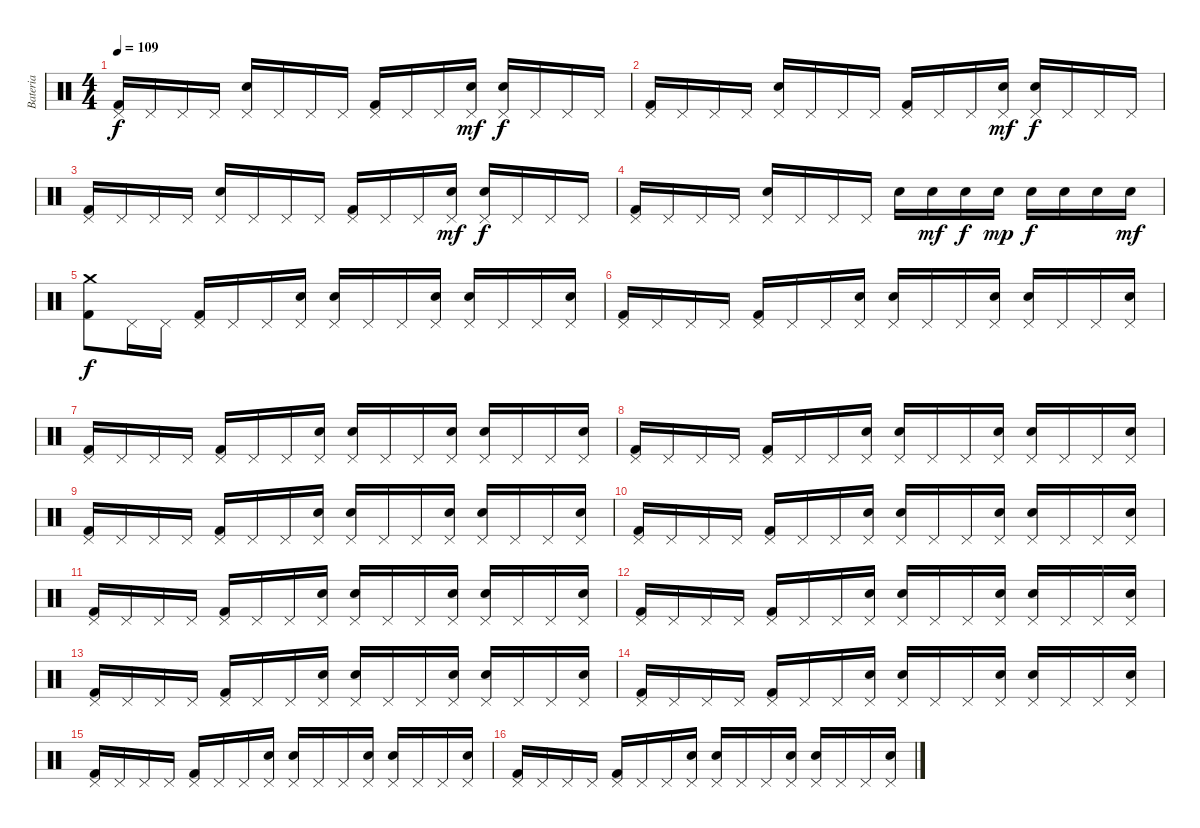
\track ("Bateria" "Bateria") {instrument percussion}
\staff {score}
\articulation defaults
\ts (4 4)
\tempo 109
\clef neutral
\ks c
("Pedal Hi-Hat (hit)" "Kick (hit) 2").16{dy f} "Pedal Hi-Hat (hit)".16 "Pedal Hi-Hat (hit)".16 "Pedal Hi-Hat (hit)".16 ("Pedal Hi-Hat (hit)" "Electric Snare (hit)").16 "Pedal Hi-Hat (hit)".16 "Pedal Hi-Hat (hit)".16 "Pedal Hi-Hat (hit)".16 ("Pedal Hi-Hat (hit)" "Kick (hit) 2").16 "Pedal Hi-Hat (hit)".16 "Pedal Hi-Hat (hit)".16 ("Pedal Hi-Hat (hit)" "Electric Snare (hit)").16{dy mf} ("Pedal Hi-Hat (hit)" "Electric Snare (hit)").16{dy f} "Pedal Hi-Hat (hit)".16 "Pedal Hi-Hat (hit)".16 "Pedal Hi-Hat (hit)".16 |
("Pedal Hi-Hat (hit)" "Kick (hit) 2").16 "Pedal Hi-Hat (hit)".16 "Pedal Hi-Hat (hit)".16 "Pedal Hi-Hat (hit)".16 ("Pedal Hi-Hat (hit)" "Electric Snare (hit)").16 "Pedal Hi-Hat (hit)".16 "Pedal Hi-Hat (hit)".16 "Pedal Hi-Hat (hit)".16 ("Pedal Hi-Hat (hit)" "Kick (hit) 2").16 "Pedal Hi-Hat (hit)".16 "Pedal Hi-Hat (hit)".16 ("Pedal Hi-Hat (hit)" "Electric Snare (hit)").16{dy mf} ("Pedal Hi-Hat (hit)" "Electric Snare (hit)").16{dy f} "Pedal Hi-Hat (hit)".16 "Pedal Hi-Hat (hit)".16 "Pedal Hi-Hat (hit)".16 |
("Pedal Hi-Hat (hit)" "Kick (hit) 2").16 "Pedal Hi-Hat (hit)".16 "Pedal Hi-Hat (hit)".16 "Pedal Hi-Hat (hit)".16 ("Pedal Hi-Hat (hit)" "Electric Snare (hit)").16 "Pedal Hi-Hat (hit)".16 "Pedal Hi-Hat (hit)".16 "Pedal Hi-Hat (hit)".16 ("Pedal Hi-Hat (hit)" "Kick (hit) 2").16 "Pedal Hi-Hat (hit)".16 "Pedal Hi-Hat (hit)".16 ("Pedal Hi-Hat (hit)" "Electric Snare (hit)").16{dy mf} ("Pedal Hi-Hat (hit)" "Electric Snare (hit)").16{dy f} "Pedal Hi-Hat (hit)".16 "Pedal Hi-Hat (hit)".16 "Pedal Hi-Hat (hit)".16 |
("Pedal Hi-Hat (hit)" "Kick (hit) 2").16 "Pedal Hi-Hat (hit)".16 "Pedal Hi-Hat (hit)".16 "Pedal Hi-Hat (hit)".16 ("Pedal Hi-Hat (hit)" "Electric Snare (hit)").16 "Pedal Hi-Hat (hit)".16 "Pedal Hi-Hat (hit)".16 "Pedal Hi-Hat (hit)".16 "Electric Snare (hit)".16 "Electric Snare (hit)".16{dy mf} "Electric Snare (hit)".16{dy f} "Electric Snare (hit)".16{dy mp} "Electric Snare (hit)".16{dy f} "Electric Snare (hit)".16 "Electric Snare (hit)".16 "Electric Snare (hit)".16{dy mf} |
("Crash medium (hit)" "Kick (hit) 2").8{dy f} "Pedal Hi-Hat (hit)".16 "Pedal Hi-Hat (hit)".16 ("Pedal Hi-Hat (hit)" "Kick (hit) 2").16 "Pedal Hi-Hat (hit)".16 "Pedal Hi-Hat (hit)".16 ("Pedal Hi-Hat (hit)" "Electric Snare (hit)").16 ("Pedal Hi-Hat (hit)" "Electric Snare (hit)").16 "Pedal Hi-Hat (hit)".16 "Pedal Hi-Hat (hit)".16 ("Pedal Hi-Hat (hit)" "Electric Snare (hit)").16 ("Pedal Hi-Hat (hit)" "Electric Snare (hit)").16 "Pedal Hi-Hat (hit)".16 "Pedal Hi-Hat (hit)".16 ("Pedal Hi-Hat (hit)" "Electric Snare (hit)").16 |
("Pedal Hi-Hat (hit)" "Kick (hit) 2").16 "Pedal Hi-Hat (hit)".16 "Pedal Hi-Hat (hit)".16 "Pedal Hi-Hat (hit)".16 ("Pedal Hi-Hat (hit)" "Kick (hit) 2").16 "Pedal Hi-Hat (hit)".16 "Pedal Hi-Hat (hit)".16 ("Pedal Hi-Hat (hit)" "Electric Snare (hit)").16 ("Pedal Hi-Hat (hit)" "Electric Snare (hit)").16 "Pedal Hi-Hat (hit)".16 "Pedal Hi-Hat (hit)".16 ("Pedal Hi-Hat (hit)" "Electric Snare (hit)").16 ("Pedal Hi-Hat (hit)" "Electric Snare (hit)").16 "Pedal Hi-Hat (hit)".16 "Pedal Hi-Hat (hit)".16 ("Pedal Hi-Hat (hit)" "Electric Snare (hit)").16 |
("Pedal Hi-Hat (hit)" "Kick (hit) 2").16 "Pedal Hi-Hat (hit)".16 "Pedal Hi-Hat (hit)".16 "Pedal Hi-Hat (hit)".16 ("Pedal Hi-Hat (hit)" "Kick (hit) 2").16 "Pedal Hi-Hat (hit)".16 "Pedal Hi-Hat (hit)".16 ("Pedal Hi-Hat (hit)" "Electric Snare (hit)").16 ("Pedal Hi-Hat (hit)" "Electric Snare (hit)").16 "Pedal Hi-Hat (hit)".16 "Pedal Hi-Hat (hit)".16 ("Pedal Hi-Hat (hit)" "Electric Snare (hit)").16 ("Pedal Hi-Hat (hit)" "Electric Snare (hit)").16 "Pedal Hi-Hat (hit)".16 "Pedal Hi-Hat (hit)".16 ("Pedal Hi-Hat (hit)" "Electric Snare (hit)").16 |
("Pedal Hi-Hat (hit)" "Kick (hit) 2").16 "Pedal Hi-Hat (hit)".16 "Pedal Hi-Hat (hit)".16 "Pedal Hi-Hat (hit)".16 ("Pedal Hi-Hat (hit)" "Kick (hit) 2").16 "Pedal Hi-Hat (hit)".16 "Pedal Hi-Hat (hit)".16 ("Pedal Hi-Hat (hit)" "Electric Snare (hit)").16 ("Pedal Hi-Hat (hit)" "Electric Snare (hit)").16 "Pedal Hi-Hat (hit)".16 "Pedal Hi-Hat (hit)".16 ("Pedal Hi-Hat (hit)" "Electric Snare (hit)").16 ("Pedal Hi-Hat (hit)" "Electric Snare (hit)").16 "Pedal Hi-Hat (hit)".16 "Pedal Hi-Hat (hit)".16 ("Pedal Hi-Hat (hit)" "Electric Snare (hit)").16 |
("Pedal Hi-Hat (hit)" "Kick (hit) 2").16 "Pedal Hi-Hat (hit)".16 "Pedal Hi-Hat (hit)".16 "Pedal Hi-Hat (hit)".16 ("Pedal Hi-Hat (hit)" "Kick (hit) 2").16 "Pedal Hi-Hat (hit)".16 "Pedal Hi-Hat (hit)".16 ("Pedal Hi-Hat (hit)" "Electric Snare (hit)").16 ("Pedal Hi-Hat (hit)" "Electric Snare (hit)").16 "Pedal Hi-Hat (hit)".16 "Pedal Hi-Hat (hit)".16 ("Pedal Hi-Hat (hit)" "Electric Snare (hit)").16 ("Pedal Hi-Hat (hit)" "Electric Snare (hit)").16 "Pedal Hi-Hat (hit)".16 "Pedal Hi-Hat (hit)".16 ("Pedal Hi-Hat (hit)" "Electric Snare (hit)").16 |
("Pedal Hi-Hat (hit)" "Kick (hit) 2").16 "Pedal Hi-Hat (hit)".16 "Pedal Hi-Hat (hit)".16 "Pedal Hi-Hat (hit)".16 ("Pedal Hi-Hat (hit)" "Kick (hit) 2").16 "Pedal Hi-Hat (hit)".16 "Pedal Hi-Hat (hit)".16 ("Pedal Hi-Hat (hit)" "Electric Snare (hit)").16 ("Pedal Hi-Hat (hit)" "Electric Snare (hit)").16 "Pedal Hi-Hat (hit)".16 "Pedal Hi-Hat (hit)".16 ("Pedal Hi-Hat (hit)" "Electric Snare (hit)").16 ("Pedal Hi-Hat (hit)" "Electric Snare (hit)").16 "Pedal Hi-Hat (hit)".16 "Pedal Hi-Hat (hit)".16 ("Pedal Hi-Hat (hit)" "Electric Snare (hit)").16 |
("Pedal Hi-Hat (hit)" "Kick (hit) 2").16 "Pedal Hi-Hat (hit)".16 "Pedal Hi-Hat (hit)".16 "Pedal Hi-Hat (hit)".16 ("Pedal Hi-Hat (hit)" "Kick (hit) 2").16 "Pedal Hi-Hat (hit)".16 "Pedal Hi-Hat (hit)".16 ("Pedal Hi-Hat (hit)" "Electric Snare (hit)").16 ("Pedal Hi-Hat (hit)" "Electric Snare (hit)").16 "Pedal Hi-Hat (hit)".16 "Pedal Hi-Hat (hit)".16 ("Pedal Hi-Hat (hit)" "Electric Snare (hit)").16 ("Pedal Hi-Hat (hit)" "Electric Snare (hit)").16 "Pedal Hi-Hat (hit)".16 "Pedal Hi-Hat (hit)".16 ("Pedal Hi-Hat (hit)" "Electric Snare (hit)").16 |
("Pedal Hi-Hat (hit)" "Kick (hit) 2").16 "Pedal Hi-Hat (hit)".16 "Pedal Hi-Hat (hit)".16 "Pedal Hi-Hat (hit)".16 ("Pedal Hi-Hat (hit)" "Kick (hit) 2").16 "Pedal Hi-Hat (hit)".16 "Pedal Hi-Hat (hit)".16 ("Pedal Hi-Hat (hit)" "Electric Snare (hit)").16 ("Pedal Hi-Hat (hit)" "Electric Snare (hit)").16 "Pedal Hi-Hat (hit)".16 "Pedal Hi-Hat (hit)".16 ("Pedal Hi-Hat (hit)" "Electric Snare (hit)").16 ("Pedal Hi-Hat (hit)" "Electric Snare (hit)").16 "Pedal Hi-Hat (hit)".16 "Pedal Hi-Hat (hit)".16 ("Pedal Hi-Hat (hit)" "Electric Snare (hit)").16 |
("Pedal Hi-Hat (hit)" "Kick (hit) 2").16 "Pedal Hi-Hat (hit)".16 "Pedal Hi-Hat (hit)".16 "Pedal Hi-Hat (hit)".16 ("Pedal Hi-Hat (hit)" "Kick (hit) 2").16 "Pedal Hi-Hat (hit)".16 "Pedal Hi-Hat (hit)".16 ("Pedal Hi-Hat (hit)" "Electric Snare (hit)").16 ("Pedal Hi-Hat (hit)" "Electric Snare (hit)").16 "Pedal Hi-Hat (hit)".16 "Pedal Hi-Hat (hit)".16 ("Pedal Hi-Hat (hit)" "Electric Snare (hit)").16 ("Pedal Hi-Hat (hit)" "Electric Snare (hit)").16 "Pedal Hi-Hat (hit)".16 "Pedal Hi-Hat (hit)".16 ("Pedal Hi-Hat (hit)" "Electric Snare (hit)").16 |
("Pedal Hi-Hat (hit)" "Kick (hit) 2").16 "Pedal Hi-Hat (hit)".16 "Pedal Hi-Hat (hit)".16 "Pedal Hi-Hat (hit)".16 ("Pedal Hi-Hat (hit)" "Kick (hit) 2").16 "Pedal Hi-Hat (hit)".16 "Pedal Hi-Hat (hit)".16 ("Pedal Hi-Hat (hit)" "Electric Snare (hit)").16 ("Pedal Hi-Hat (hit)" "Electric Snare (hit)").16 "Pedal Hi-Hat (hit)".16 "Pedal Hi-Hat (hit)".16 ("Pedal Hi-Hat (hit)" "Electric Snare (hit)").16 ("Pedal Hi-Hat (hit)" "Electric Snare (hit)").16 "Pedal Hi-Hat (hit)".16 "Pedal Hi-Hat (hit)".16 ("Pedal Hi-Hat (hit)" "Electric Snare (hit)").16 |
("Pedal Hi-Hat (hit)" "Kick (hit) 2").16 "Pedal Hi-Hat (hit)".16 "Pedal Hi-Hat (hit)".16 "Pedal Hi-Hat (hit)".16 ("Pedal Hi-Hat (hit)" "Kick (hit) 2").16 "Pedal Hi-Hat (hit)".16 "Pedal Hi-Hat (hit)".16 ("Pedal Hi-Hat (hit)" "Electric Snare (hit)").16 ("Pedal Hi-Hat (hit)" "Electric Snare (hit)").16 "Pedal Hi-Hat (hit)".16 "Pedal Hi-Hat (hit)".16 ("Pedal Hi-Hat (hit)" "Electric Snare (hit)").16 ("Pedal Hi-Hat (hit)" "Electric Snare (hit)").16 "Pedal Hi-Hat (hit)".16 "Pedal Hi-Hat (hit)".16 ("Pedal Hi-Hat (hit)" "Electric Snare (hit)").16 |
("Pedal Hi-Hat (hit)" "Kick (hit) 2").16 "Pedal Hi-Hat (hit)".16 "Pedal Hi-Hat (hit)".16 "Pedal Hi-Hat (hit)".16 ("Pedal Hi-Hat (hit)" "Kick (hit) 2").16 "Pedal Hi-Hat (hit)".16 "Pedal Hi-Hat (hit)".16 ("Pedal Hi-Hat (hit)" "Electric Snare (hit)").16 ("Pedal Hi-Hat (hit)" "Electric Snare (hit)").16 "Pedal Hi-Hat (hit)".16 "Pedal Hi-Hat (hit)".16 ("Pedal Hi-Hat (hit)" "Electric Snare (hit)").16 ("Pedal Hi-Hat (hit)" "Electric Snare (hit)").16 "Pedal Hi-Hat (hit)".16 "Pedal Hi-Hat (hit)".16 ("Pedal Hi-Hat (hit)" "Electric Snare (hit)").16
